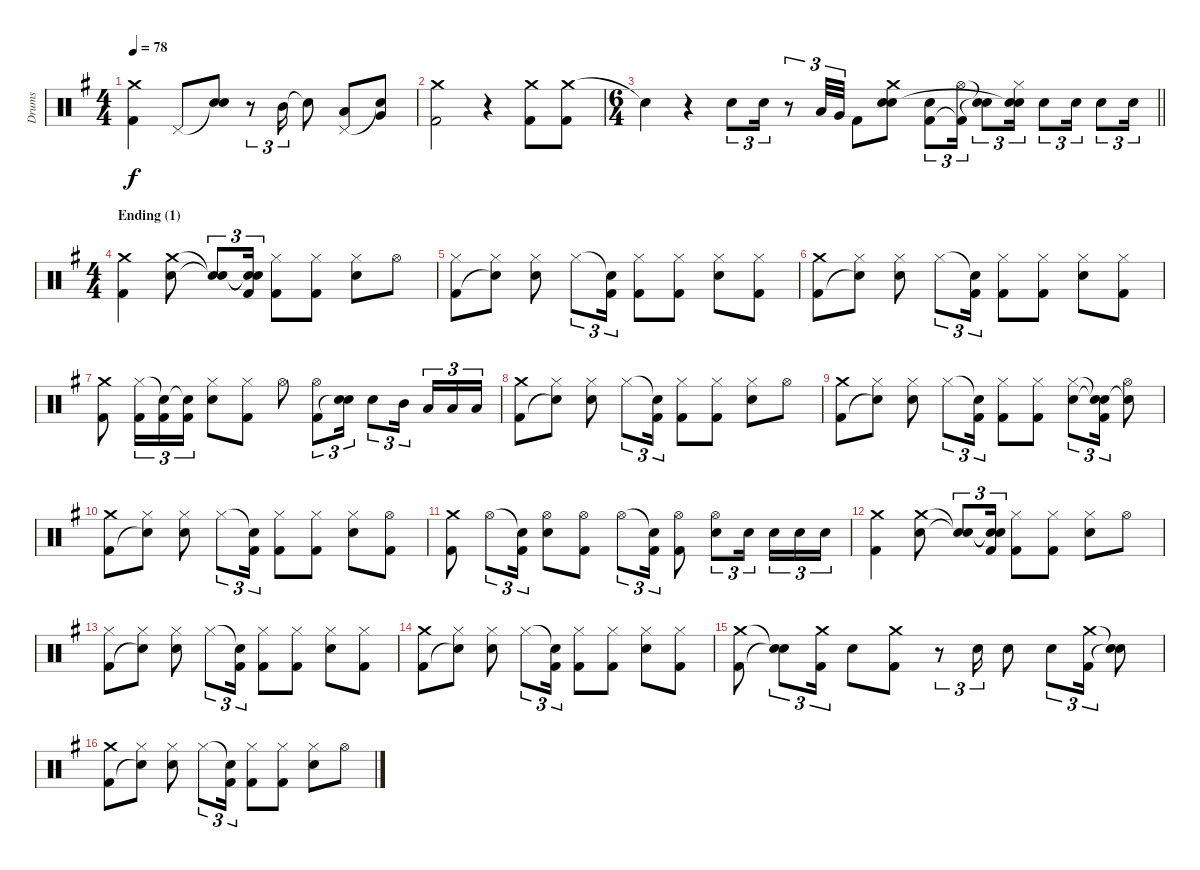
\track ("Drums" "Drums") {instrument percussion}
\staff {score}
\articulation defaults
\ts (4 4)
\tempo 78
\clef neutral
\ks g
("Crash medium (hit)" "Kick (hit) 2").4{dy f} "Pedal Hi-Hat (hit)".8 ("Snare (hit)"{t} "Electric Snare (hit)").8 r.8{tu (3 2)} "Mid Tom (hit)".16{tu (3 2)} "Snare (hit)"{t}.8 ("Pedal Hi-Hat (hit)" "Low Tom (hit)").8 ("Snare (hit)"{t} "Very Low Tom (hit)").8 |
("Crash medium (hit)" "Kick (hit) 2").2 r.4 ("Crash medium (hit)" "Kick (hit) 2").8 ("Crash medium (hit)" "Kick (hit) 2").8 |
\ts (6 4)
\barLineRight lightlight "Snare (hit)"{t}.4
r.4 "Electric Snare (hit)".8{tu (3 2)} "Electric Snare (hit)".16{tu (3 2)} r.8{tu (3 2)} "Low Tom (hit)".32{tu (3 2)} "Very Low Tom (hit)".32{tu (3 2)} "Kick (hit) 2".8 ("Crash medium (hit)" "Electric Snare (hit)" "Snare (hit)").8 ("Electric Snare (hit)" "Kick (hit) 2").8{tu (3 2)} ("Hi-Hat (open)" "Kick (hit) 2"{t}).16{tu (3 2)} ("Snare (hit)"{t} "Snare (hit)"{t}).8{tu (3 2)} ("Hi-Hat (closed)" "Electric Snare (hit)" "Snare (hit)"{t}).16{tu (3 2)} "Electric Snare (hit)".8{tu (3 2)} "Electric Snare (hit)".16{tu (3 2)} "Electric Snare (hit)".8{tu (3 2)} "Electric Snare (hit)".16{tu (3 2)} |
\ts (4 4)
\section ("" "Ending (1)")
("Crash medium (hit)" "Kick (hit) 2").4 ("Crash medium (hit)" "Electric Snare (hit)").8 ("Snare (hit)"{t} "Snare (hit)"{t}).8{tu (3 2)} ("Snare (hit)"{t} "Snare (hit)"{t} "Kick (hit) 2").16{tu (3 2)} ("Hi-Hat (closed)" "Kick (hit) 2").8 ("Hi-Hat (closed)" "Kick (hit) 2").8 ("Hi-Hat (closed)" "Electric Snare (hit)").8 "Hi-Hat (open)".8 |
("Hi-Hat (closed)" "Kick (hit) 2").8 ("Hi-Hat (closed)" "Snare (hit)"{t}).8 ("Hi-Hat (closed)" "Electric Snare (hit)").8 "Hi-Hat (closed)".8{tu (3 2)} ("Snare (hit)"{t} "Kick (hit) 2").16{tu (3 2)} ("Hi-Hat (closed)" "Kick (hit) 2").8 ("Hi-Hat (closed)" "Kick (hit) 2").8 ("Hi-Hat (closed)" "Electric Snare (hit)").8 ("Hi-Hat (closed)" "Kick (hit) 2").8 |
("Crash medium (hit)" "Kick (hit) 2").8 ("Hi-Hat (closed)" "Snare (hit)"{t}).8 ("Hi-Hat (closed)" "Electric Snare (hit)").8 "Hi-Hat (closed)".8{tu (3 2)} ("Snare (hit)"{t} "Kick (hit) 2").16{tu (3 2)} ("Hi-Hat (closed)" "Kick (hit) 2").8 ("Hi-Hat (closed)" "Kick (hit) 2").8 ("Hi-Hat (closed)" "Electric Snare (hit)").8 ("Hi-Hat (closed)" "Kick (hit) 2").8 |
("Crash medium (hit)" "Kick (hit) 2").8 ("Hi-Hat (closed)" "Kick (hit) 2").16{tu (3 2)} ("Snare (hit)"{t} "Kick (hit) 2").16{tu (3 2)} ("Snare (hit)"{t} "Kick (hit) 2").16{tu (3 2)} ("Hi-Hat (closed)" "Electric Snare (hit)").8 ("Hi-Hat (closed)" "Kick (hit) 2").8 "Hi-Hat (open)".8 ("Hi-Hat (open)" "Kick (hit) 2").8{tu (3 2)} ("Electric Snare (hit)" "Snare (hit)"{t}).16{tu (3 2)} "Electric Snare (hit)".8{tu (3 2)} "Mid Tom (hit)".16{tu (3 2)} "Low Tom (hit)".16{tu (3 2)} "Low Tom (hit)".16{tu (3 2)} "Low Tom (hit)".16{tu (3 2)} |
("Crash medium (hit)" "Kick (hit) 2").8 ("Hi-Hat (closed)" "Snare (hit)"{t}).8 ("Hi-Hat (closed)" "Electric Snare (hit)").8 "Hi-Hat (closed)".8{tu (3 2)} ("Snare (hit)"{t} "Kick (hit) 2").16{tu (3 2)} ("Hi-Hat (closed)" "Kick (hit) 2").8 ("Hi-Hat (closed)" "Kick (hit) 2").8 ("Hi-Hat (closed)" "Electric Snare (hit)").8 "Hi-Hat (open)".8 |
("Crash medium (hit)" "Kick (hit) 2").8 ("Hi-Hat (closed)" "Snare (hit)"{t}).8 ("Hi-Hat (closed)" "Electric Snare (hit)").8 "Hi-Hat (closed)".8{tu (3 2)} ("Snare (hit)"{t} "Kick (hit) 2").16{tu (3 2)} ("Hi-Hat (closed)" "Kick (hit) 2").8 ("Hi-Hat (closed)" "Kick (hit) 2").8 ("Hi-Hat (closed)" "Electric Snare (hit)").8{tu (3 2)} ("Snare (hit)"{t} "Snare (hit)"{t} "Kick (hit) 2").16{tu (3 2)} ("Hi-Hat (open)" "Snare (hit)"{t}).8 |
("Crash medium (hit)" "Kick (hit) 2").8 ("Hi-Hat (closed)" "Snare (hit)"{t}).8 ("Hi-Hat (closed)" "Electric Snare (hit)").8 "Hi-Hat (closed)".8{tu (3 2)} ("Snare (hit)"{t} "Kick (hit) 2").16{tu (3 2)} ("Hi-Hat (closed)" "Kick (hit) 2").8 ("Hi-Hat (closed)" "Kick (hit) 2").8 ("Hi-Hat (closed)" "Electric Snare (hit)").8 ("Hi-Hat (open)" "Kick (hit) 2").8 |
("Crash medium (hit)" "Kick (hit) 2").8 "Hi-Hat (open)".8{tu (3 2)} ("Snare (hit)"{t} "Kick (hit) 2").16{tu (3 2)} ("Hi-Hat (open)" "Electric Snare (hit)").8 ("Hi-Hat (open)" "Kick (hit) 2").8 "Hi-Hat (open)".8{tu (3 2)} ("Snare (hit)"{t} "Kick (hit) 2").16{tu (3 2)} ("Hi-Hat (open)" "Kick (hit) 2").8 ("Hi-Hat (open)" "Electric Snare (hit)").8{tu (3 2)} "Electric Snare (hit)".16{tu (3 2)} "Electric Snare (hit)".16{tu (3 2)} "Electric Snare (hit)".16{tu (3 2)} "Electric Snare (hit)".16{tu (3 2)} |
("Crash medium (hit)" "Kick (hit) 2").4 ("Crash medium (hit)" "Electric Snare (hit)").8 ("Snare (hit)"{t} "Snare (hit)"{t}).8{tu (3 2)} ("Snare (hit)"{t} "Snare (hit)"{t} "Kick (hit) 2").16{tu (3 2)} ("Hi-Hat (closed)" "Kick (hit) 2").8 ("Hi-Hat (closed)" "Kick (hit) 2").8 ("Hi-Hat (closed)" "Electric Snare (hit)").8 "Hi-Hat (open)".8 |
("Hi-Hat (closed)" "Kick (hit) 2").8 ("Hi-Hat (closed)" "Snare (hit)"{t}).8 ("Hi-Hat (closed)" "Electric Snare (hit)").8 "Hi-Hat (closed)".8{tu (3 2)} ("Snare (hit)"{t} "Kick (hit) 2").16{tu (3 2)} ("Hi-Hat (closed)" "Kick (hit) 2").8 ("Hi-Hat (closed)" "Kick (hit) 2").8 ("Hi-Hat (closed)" "Electric Snare (hit)").8 ("Hi-Hat (closed)" "Kick (hit) 2").8 |
("Crash medium (hit)" "Kick (hit) 2").8 ("Hi-Hat (closed)" "Snare (hit)"{t}).8 ("Hi-Hat (closed)" "Electric Snare (hit)").8 "Hi-Hat (closed)".8{tu (3 2)} ("Snare (hit)"{t} "Kick (hit) 2").16{tu (3 2)} ("Hi-Hat (closed)" "Kick (hit) 2").8 ("Hi-Hat (closed)" "Kick (hit) 2").8 ("Hi-Hat (closed)" "Electric Snare (hit)").8 ("Hi-Hat (closed)" "Kick (hit) 2").8 |
("Crash medium (hit)" "Kick (hit) 2").8 ("Snare (hit)"{t} "Snare (hit)"{t}).8{tu (3 2)} ("Crash medium (hit)" "Kick (hit) 2").16{tu (3 2)} "Electric Snare (hit)".8 ("Crash medium (hit)" "Kick (hit) 2").8 r.8{tu (3 2)} "Electric Snare (hit)".16{tu (3 2)} "Electric Snare (hit)".8 "Electric Snare (hit)".8{tu (3 2)} ("Crash medium (hit)" "Kick (hit) 2").16{tu (3 2)} ("Snare (hit)"{t} "Snare (hit)"{t}).8 |
("Crash medium (hit)" "Kick (hit) 2").8 ("Hi-Hat (closed)" "Snare (hit)"{t}).8 ("Hi-Hat (closed)" "Electric Snare (hit)").8 "Hi-Hat (closed)".8{tu (3 2)} ("Snare (hit)"{t} "Kick (hit) 2").16{tu (3 2)} ("Hi-Hat (closed)" "Kick (hit) 2").8 ("Hi-Hat (closed)" "Kick (hit) 2").8 ("Hi-Hat (closed)" "Electric Snare (hit)").8 "Hi-Hat (open)".8
